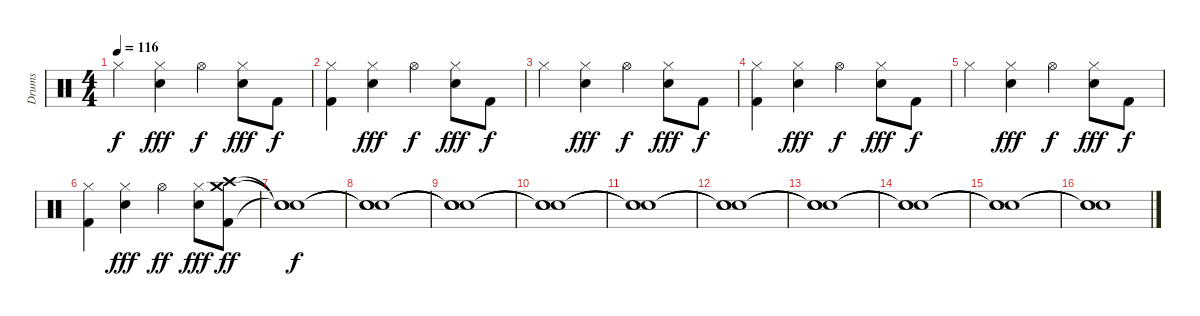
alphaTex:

\track ("Drums" "Drums") {instrument percussion}
\staff {score}
\articulation defaults
\ts (4 4)
\tempo 116
\clef neutral
\ks c "Hi-Hat (closed)".4{dy f}
("Hi-Hat (closed)" "Snare (hit) 2").4{dy fff} "Hi-Hat (open)".4{dy f} ("Hi-Hat (closed)" "Snare (hit) 2").8{dy fff} "Kick (hit) 2".8{dy f} |
("Hi-Hat (closed)" "Kick (hit) 2").4 ("Hi-Hat (closed)" "Snare (hit) 2").4{dy fff} "Hi-Hat (open)".4{dy f} ("Hi-Hat (closed)" "Snare (hit) 2").8{dy fff} "Kick (hit) 2".8{dy f} |
"Hi-Hat (closed)".4 ("Hi-Hat (closed)" "Snare (hit) 2").4{dy fff} "Hi-Hat (open)".4{dy f} ("Hi-Hat (closed)" "Snare (hit) 2").8{dy fff} "Kick (hit) 2".8{dy f} |
("Hi-Hat (closed)" "Kick (hit) 2").4 ("Hi-Hat (closed)" "Snare (hit) 2").4{dy fff} "Hi-Hat (open)".4{dy f} ("Hi-Hat (closed)" "Snare (hit) 2").8{dy fff} "Kick (hit) 2".8{dy f} |
"Hi-Hat (closed)".4 ("Hi-Hat (closed)" "Snare (hit) 2").4{dy fff} "Hi-Hat (open)".4{dy f} ("Hi-Hat (closed)" "Snare (hit) 2").8{dy fff} "Kick (hit) 2".8{dy f} |
("Hi-Hat (closed)" "Kick (hit) 2").4 ("Hi-Hat (closed)" "Snare (hit) 2").4{dy fff} "Hi-Hat (open)".4{dy ff} ("Hi-Hat (closed)" "Snare (hit) 2").8{dy fff} ("Crash high (hit)" "Crash medium (hit)" "Kick (hit) 2").8{dy ff} |
("Snare (hit)"{t} "Snare (hit)"{t} "Snare (hit)"{t}).1{dy f} |
("Snare (hit)"{t} "Snare (hit)"{t} "Snare (hit)"{t}).1 |
("Snare (hit)"{t} "Snare (hit)"{t} "Snare (hit)"{t}).1 |
("Snare (hit)"{t} "Snare (hit)"{t} "Snare (hit)"{t}).1 |
("Snare (hit)"{t} "Snare (hit)"{t} "Snare (hit)"{t}).1 |
("Snare (hit)"{t} "Snare (hit)"{t} "Snare (hit)"{t}).1 |
("Snare (hit)"{t} "Snare (hit)"{t} "Snare (hit)"{t}).1 |
("Snare (hit)"{t} "Snare (hit)"{t} "Snare (hit)"{t}).1 |
("Snare (hit)"{t} "Snare (hit)"{t} "Snare (hit)"{t}).1 |
("Snare (hit)"{t} "Snare (hit)"{t} "Snare (hit)"{t}).1
